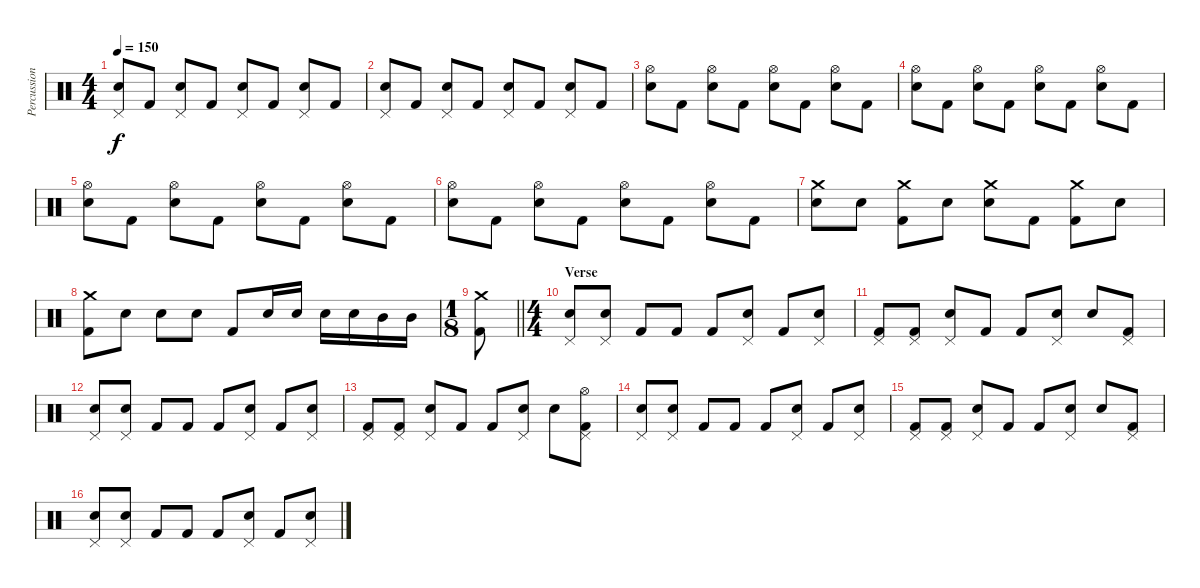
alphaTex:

\track ("Percussion" "Percussion") {instrument percussion}
\staff {score}
\articulation defaults
\ts (4 4)
\tempo 150
\clef neutral
\ks c
("Pedal Hi-Hat (hit)" "Electric Snare (hit)").8{dy f} "Kick (hit) 2".8 ("Pedal Hi-Hat (hit)" "Electric Snare (hit)").8 "Kick (hit) 2".8 ("Pedal Hi-Hat (hit)" "Electric Snare (hit)").8 "Kick (hit) 2".8 ("Pedal Hi-Hat (hit)" "Electric Snare (hit)").8 "Kick (hit) 2".8 |
("Pedal Hi-Hat (hit)" "Electric Snare (hit)").8 "Kick (hit) 2".8 ("Pedal Hi-Hat (hit)" "Electric Snare (hit)").8 "Kick (hit) 2".8 ("Pedal Hi-Hat (hit)" "Electric Snare (hit)").8 "Kick (hit) 2".8 ("Pedal Hi-Hat (hit)" "Electric Snare (hit)").8 "Kick (hit) 2".8 |
("Hi-Hat (open)" "Electric Snare (hit)").8 "Kick (hit) 2".8 ("Hi-Hat (open)" "Electric Snare (hit)").8 "Kick (hit) 2".8 ("Hi-Hat (open)" "Electric Snare (hit)").8 "Kick (hit) 2".8 ("Hi-Hat (open)" "Electric Snare (hit)").8 "Kick (hit) 2".8 |
("Hi-Hat (open)" "Electric Snare (hit)").8 "Kick (hit) 2".8 ("Hi-Hat (open)" "Electric Snare (hit)").8 "Kick (hit) 2".8 ("Hi-Hat (open)" "Electric Snare (hit)").8 "Kick (hit) 2".8 ("Hi-Hat (open)" "Electric Snare (hit)").8 "Kick (hit) 2".8 |
("Hi-Hat (open)" "Electric Snare (hit)").8 "Kick (hit) 2".8 ("Hi-Hat (open)" "Electric Snare (hit)").8 "Kick (hit) 2".8 ("Hi-Hat (open)" "Electric Snare (hit)").8 "Kick (hit) 2".8 ("Hi-Hat (open)" "Electric Snare (hit)").8 "Kick (hit) 2".8 |
("Hi-Hat (open)" "Electric Snare (hit)").8 "Kick (hit) 2".8 ("Hi-Hat (open)" "Electric Snare (hit)").8 "Kick (hit) 2".8 ("Hi-Hat (open)" "Electric Snare (hit)").8 "Kick (hit) 2".8 ("Hi-Hat (open)" "Electric Snare (hit)").8 "Kick (hit) 2".8 |
("Crash medium (hit)" "Electric Snare (hit)").8 "Electric Snare (hit)".8 ("Crash medium (hit)" "Kick (hit) 2").8 "Electric Snare (hit)".8 ("Crash medium (hit)" "Electric Snare (hit)").8 "Kick (hit) 2".8 ("Crash medium (hit)" "Kick (hit) 2").8 "Electric Snare (hit)".8 |
("Crash medium (hit)" "Kick (hit) 2").8 "Electric Snare (hit)".8 "Electric Snare (hit)".8 "Electric Snare (hit)".8 "Kick (hit) 2".8 "Electric Snare (hit)".16 "Electric Snare (hit)".16 "Electric Snare (hit)".16 "Electric Snare (hit)".16 "Mid Tom (hit)".16 "Mid Tom (hit)".16 |
\ts (1 8)
\barLineRight lightlight
("Crash medium (hit)" "Kick (hit) 2").8 |
\ts (4 4)
\section ("" "Verse")
("Pedal Hi-Hat (hit)" "Electric Snare (hit)").8 ("Pedal Hi-Hat (hit)" "Electric Snare (hit)").8 "Kick (hit) 2".8 "Kick (hit) 2".8 "Kick (hit) 2".8 ("Pedal Hi-Hat (hit)" "Electric Snare (hit)").8 "Kick (hit) 2".8 ("Pedal Hi-Hat (hit)" "Electric Snare (hit)").8 |
("Pedal Hi-Hat (hit)" "Kick (hit) 2").8 ("Pedal Hi-Hat (hit)" "Kick (hit) 2").8 ("Pedal Hi-Hat (hit)" "Electric Snare (hit)").8 "Kick (hit) 2".8 "Kick (hit) 2".8 ("Pedal Hi-Hat (hit)" "Electric Snare (hit)").8 "Electric Snare (hit)".8 ("Pedal Hi-Hat (hit)" "Kick (hit) 2").8 |
("Pedal Hi-Hat (hit)" "Electric Snare (hit)").8 ("Pedal Hi-Hat (hit)" "Electric Snare (hit)").8 "Kick (hit) 2".8 "Kick (hit) 2".8 "Kick (hit) 2".8 ("Pedal Hi-Hat (hit)" "Electric Snare (hit)").8 "Kick (hit) 2".8 ("Pedal Hi-Hat (hit)" "Electric Snare (hit)").8 |
("Pedal Hi-Hat (hit)" "Kick (hit) 2").8 ("Pedal Hi-Hat (hit)" "Kick (hit) 2").8 ("Pedal Hi-Hat (hit)" "Electric Snare (hit)").8 "Kick (hit) 2".8 "Kick (hit) 2".8 ("Pedal Hi-Hat (hit)" "Electric Snare (hit)").8 "Electric Snare (hit)".8 ("Hi-Hat (open)" "Pedal Hi-Hat (hit)" "Kick (hit) 2").8 |
("Pedal Hi-Hat (hit)" "Electric Snare (hit)").8 ("Pedal Hi-Hat (hit)" "Electric Snare (hit)").8 "Kick (hit) 2".8 "Kick (hit) 2".8 "Kick (hit) 2".8 ("Pedal Hi-Hat (hit)" "Electric Snare (hit)").8 "Kick (hit) 2".8 ("Pedal Hi-Hat (hit)" "Electric Snare (hit)").8 |
("Pedal Hi-Hat (hit)" "Kick (hit) 2").8 ("Pedal Hi-Hat (hit)" "Kick (hit) 2").8 ("Pedal Hi-Hat (hit)" "Electric Snare (hit)").8 "Kick (hit) 2".8 "Kick (hit) 2".8 ("Pedal Hi-Hat (hit)" "Electric Snare (hit)").8 "Electric Snare (hit)".8 ("Pedal Hi-Hat (hit)" "Kick (hit) 2").8 |
("Pedal Hi-Hat (hit)" "Electric Snare (hit)").8 ("Pedal Hi-Hat (hit)" "Electric Snare (hit)").8 "Kick (hit) 2".8 "Kick (hit) 2".8 "Kick (hit) 2".8 ("Pedal Hi-Hat (hit)" "Electric Snare (hit)").8 "Kick (hit) 2".8 ("Pedal Hi-Hat (hit)" "Electric Snare (hit)").8
